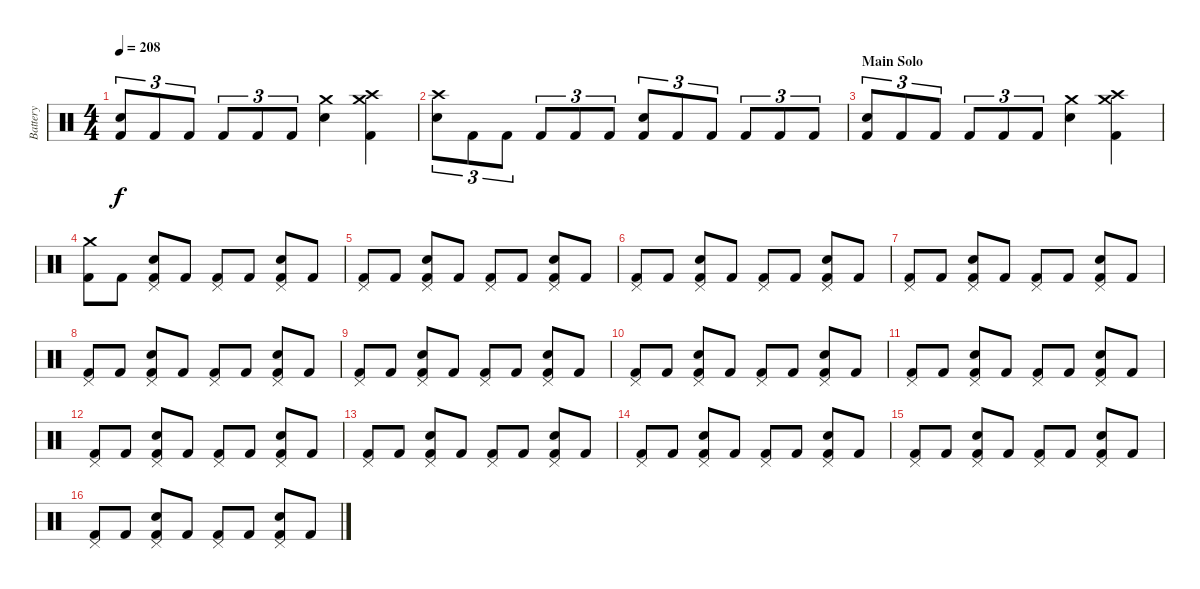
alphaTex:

\track ("Battery" "Battery") {instrument percussion}
\staff {score}
\articulation defaults
\ts (4 4)
\tempo 208
\clef neutral
\ks c
("Electric Snare (hit)" "Kick (hit) 2").8{tu (3 2) dy f} "Kick (hit) 2".8{tu (3 2)} "Kick (hit) 2".8{tu (3 2)} "Kick (hit) 2".8{tu (3 2)} "Kick (hit) 2".8{tu (3 2)} "Kick (hit) 2".8{tu (3 2)} ("Crash medium (hit)" "Electric Snare (hit)").4 ("Crash high (hit)" "Crash medium (hit)" "Kick (hit) 2").4 |
("Crash high (hit)" "Electric Snare (hit)").8{tu (3 2)} "Kick (hit) 2".8{tu (3 2)} "Kick (hit) 2".8{tu (3 2)} "Kick (hit) 2".8{tu (3 2)} "Kick (hit) 2".8{tu (3 2)} "Kick (hit) 2".8{tu (3 2)} ("Electric Snare (hit)" "Kick (hit) 2").8{tu (3 2)} "Kick (hit) 2".8{tu (3 2)} "Kick (hit) 2".8{tu (3 2)} "Kick (hit) 2".8{tu (3 2)} "Kick (hit) 2".8{tu (3 2)} "Kick (hit) 2".8{tu (3 2)} |
\section ("" "Main Solo")
("Electric Snare (hit)" "Kick (hit) 2").8{tu (3 2)} "Kick (hit) 2".8{tu (3 2)} "Kick (hit) 2".8{tu (3 2)} "Kick (hit) 2".8{tu (3 2)} "Kick (hit) 2".8{tu (3 2)} "Kick (hit) 2".8{tu (3 2)} ("Crash medium (hit)" "Electric Snare (hit)").4 ("Crash high (hit)" "Crash medium (hit)" "Kick (hit) 2").4 |
("Crash medium (hit)" "Kick (hit) 2").8 "Kick (hit) 2".8 ("Pedal Hi-Hat (hit)" "Electric Snare (hit)" "Kick (hit) 2").8 "Kick (hit) 2".8 ("Pedal Hi-Hat (hit)" "Kick (hit) 2").8 "Kick (hit) 2".8 ("Pedal Hi-Hat (hit)" "Electric Snare (hit)" "Kick (hit) 2").8 "Kick (hit) 2".8 |
("Pedal Hi-Hat (hit)" "Kick (hit) 2").8 "Kick (hit) 2".8 ("Pedal Hi-Hat (hit)" "Electric Snare (hit)" "Kick (hit) 2").8 "Kick (hit) 2".8 ("Pedal Hi-Hat (hit)" "Kick (hit) 2").8 "Kick (hit) 2".8 ("Pedal Hi-Hat (hit)" "Electric Snare (hit)" "Kick (hit) 2").8 "Kick (hit) 2".8 |
("Pedal Hi-Hat (hit)" "Kick (hit) 2").8 "Kick (hit) 2".8 ("Pedal Hi-Hat (hit)" "Electric Snare (hit)" "Kick (hit) 2").8 "Kick (hit) 2".8 ("Pedal Hi-Hat (hit)" "Kick (hit) 2").8 "Kick (hit) 2".8 ("Pedal Hi-Hat (hit)" "Electric Snare (hit)" "Kick (hit) 2").8 "Kick (hit) 2".8 |
("Pedal Hi-Hat (hit)" "Kick (hit) 2").8 "Kick (hit) 2".8 ("Pedal Hi-Hat (hit)" "Electric Snare (hit)" "Kick (hit) 2").8 "Kick (hit) 2".8 ("Pedal Hi-Hat (hit)" "Kick (hit) 2").8 "Kick (hit) 2".8 ("Pedal Hi-Hat (hit)" "Electric Snare (hit)" "Kick (hit) 2").8 "Kick (hit) 2".8 |
("Pedal Hi-Hat (hit)" "Kick (hit) 2").8 "Kick (hit) 2".8 ("Pedal Hi-Hat (hit)" "Electric Snare (hit)" "Kick (hit) 2").8 "Kick (hit) 2".8 ("Pedal Hi-Hat (hit)" "Kick (hit) 2").8 "Kick (hit) 2".8 ("Pedal Hi-Hat (hit)" "Electric Snare (hit)" "Kick (hit) 2").8 "Kick (hit) 2".8 |
("Pedal Hi-Hat (hit)" "Kick (hit) 2").8 "Kick (hit) 2".8 ("Pedal Hi-Hat (hit)" "Electric Snare (hit)" "Kick (hit) 2").8 "Kick (hit) 2".8 ("Pedal Hi-Hat (hit)" "Kick (hit) 2").8 "Kick (hit) 2".8 ("Pedal Hi-Hat (hit)" "Electric Snare (hit)" "Kick (hit) 2").8 "Kick (hit) 2".8 |
("Pedal Hi-Hat (hit)" "Kick (hit) 2").8 "Kick (hit) 2".8 ("Pedal Hi-Hat (hit)" "Electric Snare (hit)" "Kick (hit) 2").8 "Kick (hit) 2".8 ("Pedal Hi-Hat (hit)" "Kick (hit) 2").8 "Kick (hit) 2".8 ("Pedal Hi-Hat (hit)" "Electric Snare (hit)" "Kick (hit) 2").8 "Kick (hit) 2".8 |
("Pedal Hi-Hat (hit)" "Kick (hit) 2").8 "Kick (hit) 2".8 ("Pedal Hi-Hat (hit)" "Electric Snare (hit)" "Kick (hit) 2").8 "Kick (hit) 2".8 ("Pedal Hi-Hat (hit)" "Kick (hit) 2").8 "Kick (hit) 2".8 ("Pedal Hi-Hat (hit)" "Electric Snare (hit)" "Kick (hit) 2").8 "Kick (hit) 2".8 |
("Pedal Hi-Hat (hit)" "Kick (hit) 2").8 "Kick (hit) 2".8 ("Pedal Hi-Hat (hit)" "Electric Snare (hit)" "Kick (hit) 2").8 "Kick (hit) 2".8 ("Pedal Hi-Hat (hit)" "Kick (hit) 2").8 "Kick (hit) 2".8 ("Pedal Hi-Hat (hit)" "Electric Snare (hit)" "Kick (hit) 2").8 "Kick (hit) 2".8 |
("Pedal Hi-Hat (hit)" "Kick (hit) 2").8 "Kick (hit) 2".8 ("Pedal Hi-Hat (hit)" "Electric Snare (hit)" "Kick (hit) 2").8 "Kick (hit) 2".8 ("Pedal Hi-Hat (hit)" "Kick (hit) 2").8 "Kick (hit) 2".8 ("Pedal Hi-Hat (hit)" "Electric Snare (hit)" "Kick (hit) 2").8 "Kick (hit) 2".8 |
("Pedal Hi-Hat (hit)" "Kick (hit) 2").8 "Kick (hit) 2".8 ("Pedal Hi-Hat (hit)" "Electric Snare (hit)" "Kick (hit) 2").8 "Kick (hit) 2".8 ("Pedal Hi-Hat (hit)" "Kick (hit) 2").8 "Kick (hit) 2".8 ("Pedal Hi-Hat (hit)" "Electric Snare (hit)" "Kick (hit) 2").8 "Kick (hit) 2".8 |
("Pedal Hi-Hat (hit)" "Kick (hit) 2").8 "Kick (hit) 2".8 ("Pedal Hi-Hat (hit)" "Electric Snare (hit)" "Kick (hit) 2").8 "Kick (hit) 2".8 ("Pedal Hi-Hat (hit)" "Kick (hit) 2").8 "Kick (hit) 2".8 ("Pedal Hi-Hat (hit)" "Electric Snare (hit)" "Kick (hit) 2").8 "Kick (hit) 2".8 |
("Pedal Hi-Hat (hit)" "Kick (hit) 2").8 "Kick (hit) 2".8 ("Pedal Hi-Hat (hit)" "Electric Snare (hit)" "Kick (hit) 2").8 "Kick (hit) 2".8 ("Pedal Hi-Hat (hit)" "Kick (hit) 2").8 "Kick (hit) 2".8 ("Pedal Hi-Hat (hit)" "Electric Snare (hit)" "Kick (hit) 2").8 "Kick (hit) 2".8
